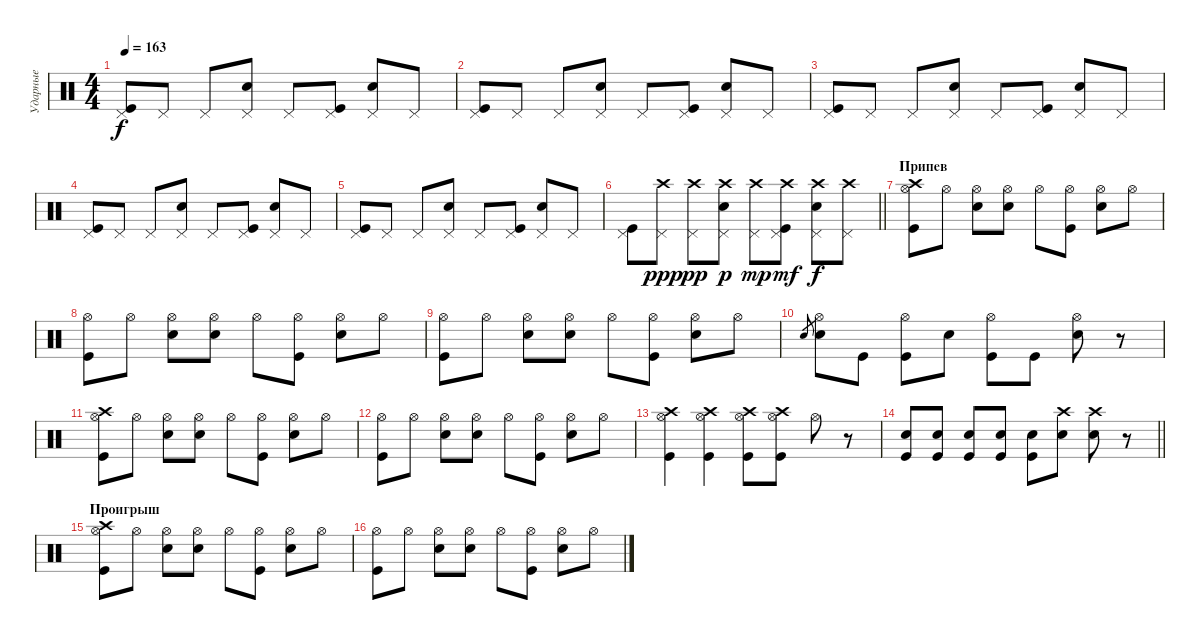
\track ("Ударные" "Ударные") {instrument percussion}
\staff {score}
\articulation defaults
\ts (4 4)
\tempo 163
\clef neutral
\ks c
("Kick (hit)" "Pedal Hi-Hat (hit)").8{dy f} "Pedal Hi-Hat (hit)".8 "Pedal Hi-Hat (hit)".8 ("Pedal Hi-Hat (hit)" "Snare (hit) 2").8 "Pedal Hi-Hat (hit)".8 ("Kick (hit)" "Pedal Hi-Hat (hit)").8 ("Pedal Hi-Hat (hit)" "Snare (hit) 2").8 "Pedal Hi-Hat (hit)".8 |
("Kick (hit)" "Pedal Hi-Hat (hit)").8 "Pedal Hi-Hat (hit)".8 "Pedal Hi-Hat (hit)".8 ("Pedal Hi-Hat (hit)" "Snare (hit) 2").8 "Pedal Hi-Hat (hit)".8 ("Kick (hit)" "Pedal Hi-Hat (hit)").8 ("Pedal Hi-Hat (hit)" "Snare (hit) 2").8 "Pedal Hi-Hat (hit)".8 |
("Kick (hit)" "Pedal Hi-Hat (hit)").8 "Pedal Hi-Hat (hit)".8 "Pedal Hi-Hat (hit)".8 ("Pedal Hi-Hat (hit)" "Snare (hit) 2").8 "Pedal Hi-Hat (hit)".8 ("Kick (hit)" "Pedal Hi-Hat (hit)").8 ("Pedal Hi-Hat (hit)" "Snare (hit) 2").8 "Pedal Hi-Hat (hit)".8 |
("Kick (hit)" "Pedal Hi-Hat (hit)").8 "Pedal Hi-Hat (hit)".8 "Pedal Hi-Hat (hit)".8 ("Pedal Hi-Hat (hit)" "Snare (hit) 2").8 "Pedal Hi-Hat (hit)".8 ("Kick (hit)" "Pedal Hi-Hat (hit)").8 ("Pedal Hi-Hat (hit)" "Snare (hit) 2").8 "Pedal Hi-Hat (hit)".8 |
("Kick (hit)" "Pedal Hi-Hat (hit)").8 "Pedal Hi-Hat (hit)".8 "Pedal Hi-Hat (hit)".8 ("Pedal Hi-Hat (hit)" "Snare (hit) 2").8 "Pedal Hi-Hat (hit)".8 ("Kick (hit)" "Pedal Hi-Hat (hit)").8 ("Pedal Hi-Hat (hit)" "Snare (hit) 2").8 "Pedal Hi-Hat (hit)".8 |
\barLineRight lightlight
("Kick (hit)" "Pedal Hi-Hat (hit)").8 ("Pedal Hi-Hat (hit)" "Crash high (hit)").8{dy ppp} ("Pedal Hi-Hat (hit)" "Crash high (hit)").8{dy pp} ("Pedal Hi-Hat (hit)" "Snare (hit) 2" "Crash high (hit)").8{dy p} ("Pedal Hi-Hat (hit)" "Crash high (hit)").8{dy mp} ("Kick (hit)" "Pedal Hi-Hat (hit)" "Crash high (hit)").8{dy mf} ("Pedal Hi-Hat (hit)" "Snare (hit) 2" "Crash high (hit)").8{dy f} ("Pedal Hi-Hat (hit)" "Crash high (hit)").8 |
\section ("" "Припев")
("Kick (hit)" "Hi-Hat (open)" "Crash high (hit)").8 "Hi-Hat (open)".8 ("Hi-Hat (open)" "Snare (hit) 2").8 ("Hi-Hat (open)" "Snare (hit) 2").8 "Hi-Hat (open)".8 ("Kick (hit)" "Hi-Hat (open)").8 ("Hi-Hat (open)" "Snare (hit) 2").8 "Hi-Hat (open)".8 |
("Kick (hit)" "Hi-Hat (open)").8 "Hi-Hat (open)".8 ("Hi-Hat (open)" "Snare (hit) 2").8 ("Hi-Hat (open)" "Snare (hit) 2").8 "Hi-Hat (open)".8 ("Kick (hit)" "Hi-Hat (open)").8 ("Hi-Hat (open)" "Snare (hit) 2").8 "Hi-Hat (open)".8 |
("Kick (hit)" "Hi-Hat (open)").8 "Hi-Hat (open)".8 ("Hi-Hat (open)" "Snare (hit) 2").8 ("Hi-Hat (open)" "Snare (hit) 2").8 "Hi-Hat (open)".8 ("Kick (hit)" "Hi-Hat (open)").8 ("Hi-Hat (open)" "Snare (hit) 2").8 "Hi-Hat (open)".8 |
"Snare (hit) 2".8{gr} ("Hi-Hat (open)" "Snare (hit) 2").8 "Kick (hit)".8 ("Kick (hit)" "Hi-Hat (open)").8 "Snare (hit) 2".8 ("Kick (hit)" "Hi-Hat (open)").8 "Kick (hit)".8 ("Hi-Hat (open)" "Snare (hit) 2").8 r.8 |
("Kick (hit)" "Hi-Hat (open)" "Crash high (hit)").8 "Hi-Hat (open)".8 ("Hi-Hat (open)" "Snare (hit) 2").8 ("Hi-Hat (open)" "Snare (hit) 2").8 "Hi-Hat (open)".8 ("Kick (hit)" "Hi-Hat (open)").8 ("Hi-Hat (open)" "Snare (hit) 2").8 "Hi-Hat (open)".8 |
("Kick (hit)" "Hi-Hat (open)").8 "Hi-Hat (open)".8 ("Hi-Hat (open)" "Snare (hit) 2").8 ("Hi-Hat (open)" "Snare (hit) 2").8 "Hi-Hat (open)".8 ("Kick (hit)" "Hi-Hat (open)").8 ("Hi-Hat (open)" "Snare (hit) 2").8 "Hi-Hat (open)".8 |
("Kick (hit)" "Hi-Hat (open)" "Crash high (hit)").4 ("Kick (hit)" "Hi-Hat (open)" "Crash high (hit)").4 ("Kick (hit)" "Hi-Hat (open)" "Crash high (hit)").8 ("Kick (hit)" "Hi-Hat (open)" "Crash high (hit)").8 "Hi-Hat (open)".8 r.8 |
\barLineRight lightlight
("Kick (hit)" "Snare (hit) 2").8 ("Kick (hit)" "Snare (hit) 2").8 ("Kick (hit)" "Snare (hit) 2").8 ("Kick (hit)" "Snare (hit) 2").8 ("Kick (hit)" "Snare (hit) 2").8 ("Snare (hit) 2" "Crash high (hit)").8 ("Snare (hit) 2" "Crash high (hit)").8 r.8 |
\section ("" "Проигрыш")
("Kick (hit)" "Hi-Hat (open)" "Crash high (hit)").8 "Hi-Hat (open)".8 ("Hi-Hat (open)" "Snare (hit) 2").8 ("Hi-Hat (open)" "Snare (hit) 2").8 "Hi-Hat (open)".8 ("Kick (hit)" "Hi-Hat (open)").8 ("Hi-Hat (open)" "Snare (hit) 2").8 "Hi-Hat (open)".8 |
("Kick (hit)" "Hi-Hat (open)").8 "Hi-Hat (open)".8 ("Hi-Hat (open)" "Snare (hit) 2").8 ("Hi-Hat (open)" "Snare (hit) 2").8 "Hi-Hat (open)".8 ("Kick (hit)" "Hi-Hat (open)").8 ("Hi-Hat (open)" "Snare (hit) 2").8 "Hi-Hat (open)".8
